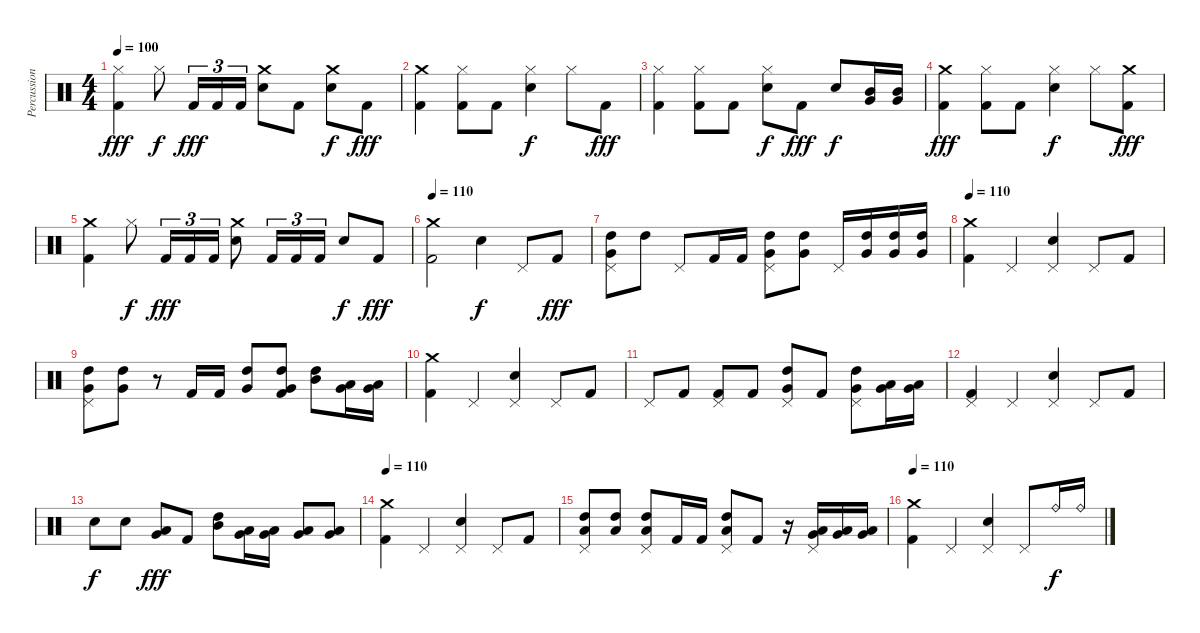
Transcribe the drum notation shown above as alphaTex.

\track ("Percussion" "Percussion") {instrument percussion}
\staff {score}
\articulation defaults
\ts (4 4)
\tempo 100
\clef neutral
\ks c
("Hi-Hat (closed)" "Kick (hit) 2").4{dy fff} "Hi-Hat (closed)".8{dy f} "Kick (hit) 2".16{tu (3 2) dy fff} "Kick (hit) 2".16{tu (3 2)} "Kick (hit) 2".16{tu (3 2)} ("Crash medium (hit)" "Snare (hit) 2").8 "Kick (hit) 2".8 ("Crash medium (hit)" "Snare (hit) 2").8{dy f} "Kick (hit) 2".8{dy fff} |
("Crash medium (hit)" "Kick (hit) 2").4 ("Hi-Hat (closed)" "Kick (hit) 2").8 "Kick (hit) 2".8 ("Hi-Hat (closed)" "Snare (hit) 2").4{dy f} "Hi-Hat (closed)".8 "Kick (hit) 2".8{dy fff} |
("Hi-Hat (closed)" "Kick (hit) 2").4 ("Hi-Hat (closed)" "Kick (hit) 2").8 "Kick (hit) 2".8 ("Hi-Hat (closed)" "Snare (hit) 2").8{dy f} "Kick (hit) 2".8{dy fff} "Snare (hit) 2".8{dy f} ("Mid Tom (hit)" "Very Low Tom (hit)").16 ("Mid Tom (hit)" "Very Low Tom (hit)").16 |
("Crash medium (hit)" "Kick (hit) 2").4{dy fff} ("Hi-Hat (closed)" "Kick (hit) 2").8 "Kick (hit) 2".8 ("Hi-Hat (closed)" "Snare (hit) 2").4{dy f} "Hi-Hat (closed)".8 ("Crash medium (hit)" "Kick (hit) 2").8{dy fff} |
("Crash medium (hit)" "Kick (hit) 2").4 "Hi-Hat (closed)".8{dy f} "Kick (hit) 2".16{tu (3 2) dy fff} "Kick (hit) 2".16{tu (3 2)} "Kick (hit) 2".16{tu (3 2)} ("Crash medium (hit)" "Snare (hit) 2").8 "Kick (hit) 2".16{tu (3 2)} "Kick (hit) 2".16{tu (3 2)} "Kick (hit) 2".16{tu (3 2)} "Snare (hit) 2".8{dy f} "Kick (hit) 2".8{dy fff} |
\tempo 110
("Crash medium (hit)" "Kick (hit) 2").2 "Snare (hit) 2".4{dy f} "Pedal Hi-Hat (hit)".8 "Kick (hit) 2".8{dy fff} |
("Pedal Hi-Hat (hit)" "High Tom (hit)" "Very Low Tom (hit)").8 "High Tom (hit)".8 "Pedal Hi-Hat (hit)".8 "Kick (hit) 2".16 "Kick (hit) 2".16 ("Pedal Hi-Hat (hit)" "High Tom (hit)" "Very Low Tom (hit)").8 ("High Tom (hit)" "Very Low Tom (hit)").8 "Pedal Hi-Hat (hit)".16 ("High Tom (hit)" "Very Low Tom (hit)").16 ("High Tom (hit)" "Very Low Tom (hit)").16 ("High Tom (hit)" "Very Low Tom (hit)").16 |
\tempo 110
("Crash medium (hit)" "Kick (hit) 2").4 "Pedal Hi-Hat (hit)".4 ("Pedal Hi-Hat (hit)" "Snare (hit) 2").4 "Pedal Hi-Hat (hit)".8 "Kick (hit) 2".8 |
("Pedal Hi-Hat (hit)" "Very Low Tom (hit)" "High Tom (hit)").8 ("Very Low Tom (hit)" "High Tom (hit)").8 r.8 "Kick (hit) 2".16 "Kick (hit) 2".16 ("High Tom (hit)" "Very Low Tom (hit)").8 ("High Tom (hit)" "Very Low Tom (hit)" "Kick (hit) 2").8 ("High Tom (hit)" "Mid Tom (hit)").8 ("Low Tom (hit)" "Very Low Tom (hit)").16 ("Low Tom (hit)" "Very Low Tom (hit)").16 |
("Crash medium (hit)" "Kick (hit) 2").4 "Pedal Hi-Hat (hit)".4 ("Pedal Hi-Hat (hit)" "Snare (hit) 2").4 "Pedal Hi-Hat (hit)".8 "Kick (hit) 2".8 |
"Pedal Hi-Hat (hit)".8 "Kick (hit) 2".8 ("Pedal Hi-Hat (hit)" "Kick (hit) 2").8 "Kick (hit) 2".8 ("Pedal Hi-Hat (hit)" "Very Low Tom (hit)" "High Tom (hit)").8 "Kick (hit) 2".8 ("Pedal Hi-Hat (hit)" "Very Low Tom (hit)" "High Tom (hit)").8 ("Low Tom (hit)" "Very Low Tom (hit)").16 ("Low Tom (hit)" "Very Low Tom (hit)").16 |
("Pedal Hi-Hat (hit)" "Kick (hit) 2").4 "Pedal Hi-Hat (hit)".4 ("Pedal Hi-Hat (hit)" "Snare (hit) 2").4 "Pedal Hi-Hat (hit)".8 "Kick (hit) 2".8 |
"Snare (hit) 2".8{dy f} "Snare (hit) 2".8 ("Low Tom (hit)" "Very Low Tom (hit)").8{dy fff} "Kick (hit) 2".8 ("Mid Tom (hit)" "High Tom (hit)").8 ("Low Tom (hit)" "Very Low Tom (hit)").16 ("Low Tom (hit)" "Very Low Tom (hit)").16 ("Low Floor Tom (hit)" "Very Low Tom (hit)").8 ("Low Floor Tom (hit)" "Very Low Tom (hit)").8 |
\tempo 110
("Crash medium (hit)" "Kick (hit) 2").4 "Pedal Hi-Hat (hit)".4 ("Pedal Hi-Hat (hit)" "Snare (hit) 2").4 "Pedal Hi-Hat (hit)".8 "Kick (hit) 2".8 |
("Pedal Hi-Hat (hit)" "High Tom (hit)" "Low Floor Tom (hit)").8 ("High Tom (hit)" "Low Floor Tom (hit)").8 ("Pedal Hi-Hat (hit)" "High Tom (hit)" "Low Floor Tom (hit)").8 "Kick (hit) 2".16 "Kick (hit) 2".16 ("Pedal Hi-Hat (hit)" "High Tom (hit)" "Low Floor Tom (hit)").8 "Kick (hit) 2".8 r.16 ("Pedal Hi-Hat (hit)" "Low Tom (hit)" "Very Low Tom (hit)").16 ("Low Tom (hit)" "Very Low Tom (hit)").16 ("Low Tom (hit)" "Very Low Tom (hit)").16 |
\tempo 110
("Crash medium (hit)" "Kick (hit) 2").4 "Pedal Hi-Hat (hit)".4 ("Pedal Hi-Hat (hit)" "Snare (hit) 2").4 "Pedal Hi-Hat (hit)".8 "Ride (bell)".16{dy f} "Ride (bell)".16
